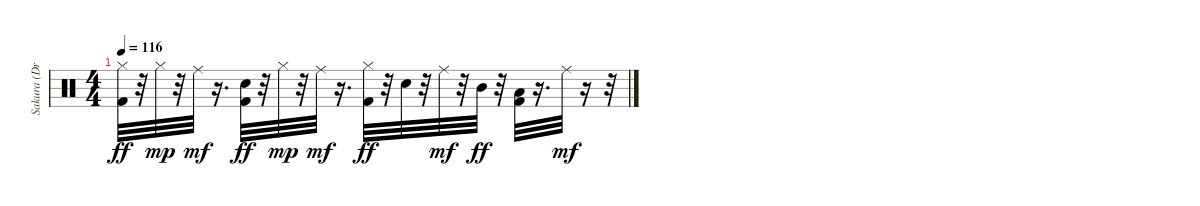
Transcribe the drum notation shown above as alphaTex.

\track ("Sakura (Drums)" "Sakura (Dr") {instrument percussion}
\staff {score}
\articulation defaults
\ts (4 4)
\tempo 116
\clef neutral
\ks c
("Hi-Hat (closed)" "Kick (hit) 2").32{dy ff volume 3} r.32 "Hi-Hat (closed)".32{dy mp volume 3} r.32 "Ride (middle)".32{dy mf volume 3} r.16{d} ("Electric Snare (hit)" "Kick (hit) 2").32{dy ff volume 3} r.32 "Hi-Hat (closed)".32{dy mp volume 2} r.32 "Ride (middle)".32{dy mf volume 2} r.16{d} ("Hi-Hat (closed)" "Kick (hit) 2").32{dy ff volume 2} r.32 "Electric Snare (hit)".32{volume 2} r.32 "Ride (middle)".32{dy mf volume 2} r.32 "Mid Tom (hit)".32{dy ff volume 1} r.32 ("Low Tom (hit)" "Kick (hit) 2").32{volume 1} r.16{d} "Ride (middle)".32{dy mf volume 1} r.16 r.32
